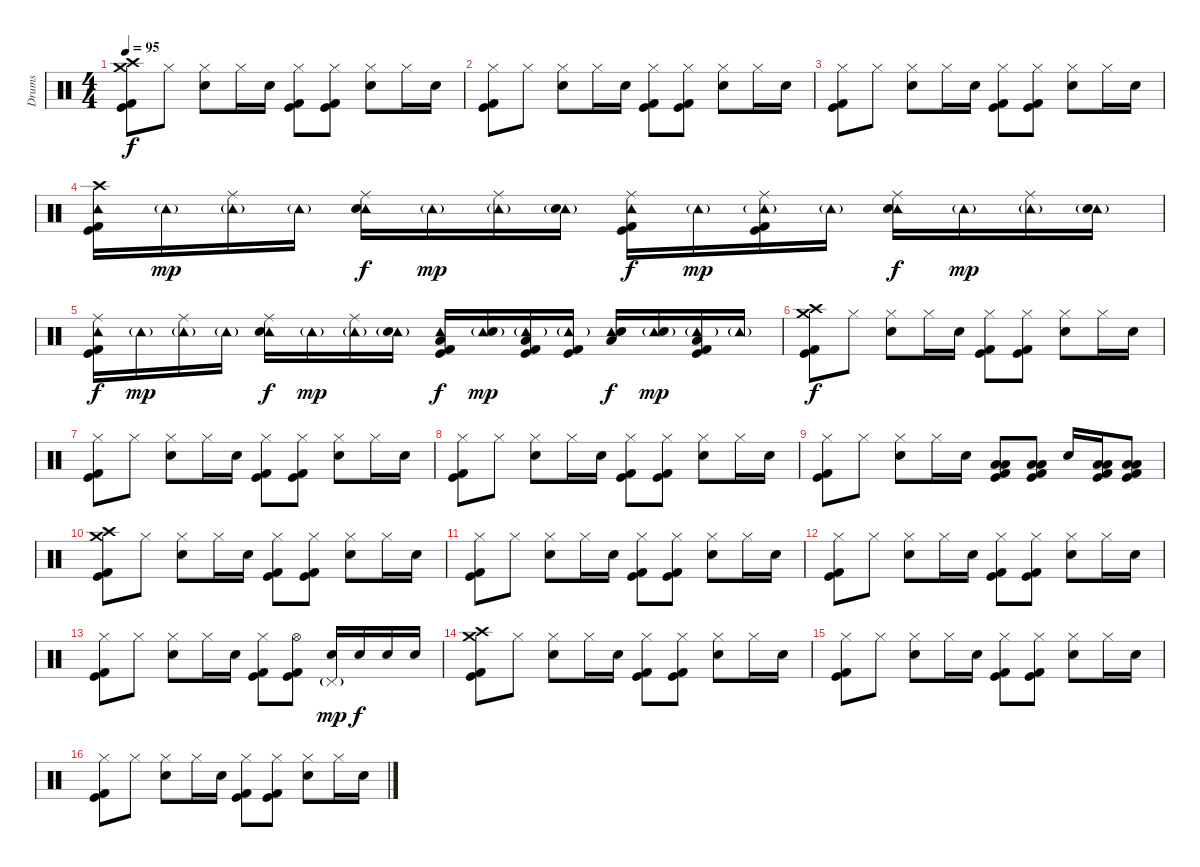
\track ("Drums" "Drums") {instrument percussion}
\staff {score}
\articulation defaults
\ts (4 4)
\tempo 95
\clef neutral
\ks c
("Crash high (hit)" "Crash medium (hit)" "Kick (hit) 2" "Kick (hit)").8{dy f} "Hi-Hat (closed)".8 ("Hi-Hat (closed)" "Snare (hit) 2").8 "Hi-Hat (closed)".16 "Snare (hit) 2".16 ("Hi-Hat (closed)" "Kick (hit) 2" "Kick (hit)").8 ("Hi-Hat (closed)" "Kick (hit) 2" "Kick (hit)").8 ("Hi-Hat (closed)" "Snare (hit) 2").8 "Hi-Hat (closed)".16 "Snare (hit) 2".16 |
("Hi-Hat (closed)" "Kick (hit) 2" "Kick (hit)").8 "Hi-Hat (closed)".8 ("Hi-Hat (closed)" "Snare (hit) 2").8 "Hi-Hat (closed)".16 "Snare (hit) 2".16 ("Hi-Hat (closed)" "Kick (hit) 2" "Kick (hit)").8 ("Hi-Hat (closed)" "Kick (hit) 2" "Kick (hit)").8 ("Hi-Hat (closed)" "Snare (hit) 2").8 "Hi-Hat (closed)".16 "Snare (hit) 2".16 |
("Hi-Hat (closed)" "Kick (hit) 2" "Kick (hit)").8 "Hi-Hat (closed)".8 ("Hi-Hat (closed)" "Snare (hit) 2").8 "Hi-Hat (closed)".16 "Snare (hit) 2".16 ("Hi-Hat (closed)" "Kick (hit) 2" "Kick (hit)").8 ("Hi-Hat (closed)" "Kick (hit) 2" "Kick (hit)").8 ("Hi-Hat (closed)" "Snare (hit) 2").8 "Hi-Hat (closed)".16 "Snare (hit) 2".16 |
("Crash high (hit)" "Tambourine (hit)" "Kick (hit) 2" "Kick (hit)").16 "Tambourine (hit)"{g}.16{dy mp} ("Ride (middle)" "Tambourine (hit)"{g}).16 "Tambourine (hit)"{g}.16 ("Ride (middle)" "Tambourine (hit)" "Snare (hit) 2").16{dy f} "Tambourine (hit)"{g}.16{dy mp} ("Ride (middle)" "Tambourine (hit)"{g}).16 ("Tambourine (hit)"{g} "Snare (hit) 2").16 ("Ride (middle)" "Tambourine (hit)" "Kick (hit) 2" "Kick (hit)").16{dy f} "Tambourine (hit)"{g}.16{dy mp} ("Ride (middle)" "Tambourine (hit)"{g} "Kick (hit) 2" "Kick (hit)").16 "Tambourine (hit)"{g}.16 ("Ride (middle)" "Tambourine (hit)" "Snare (hit) 2").16{dy f} "Tambourine (hit)"{g}.16{dy mp} ("Ride (middle)" "Tambourine (hit)"{g}).16 ("Tambourine (hit)"{g} "Snare (hit) 2").16 |
("Ride (middle)" "Tambourine (hit)" "Kick (hit) 2" "Kick (hit)").16{dy f} "Tambourine (hit)"{g}.16{dy mp} ("Ride (middle)" "Tambourine (hit)"{g}).16 "Tambourine (hit)"{g}.16 ("Ride (middle)" "Tambourine (hit)" "Snare (hit) 2").16{dy f} "Tambourine (hit)"{g}.16{dy mp} ("Ride (middle)" "Tambourine (hit)"{g}).16 ("Tambourine (hit)"{g} "Snare (hit) 2").16 ("Low Floor Tom (hit)" "Tambourine (hit)" "Kick (hit) 2" "Kick (hit)").16{dy f} ("Tambourine (hit)"{g} "Snare (hit) 2").16{dy mp} ("Low Floor Tom (hit)" "Tambourine (hit)"{g} "Kick (hit) 2" "Kick (hit)").16 ("Tambourine (hit)"{g} "Kick (hit) 2" "Kick (hit)").16 ("Low Floor Tom (hit)" "Tambourine (hit)" "Snare (hit) 2").16{dy f} ("Tambourine (hit)"{g} "Snare (hit) 2").16{dy mp} ("Low Floor Tom (hit)" "Tambourine (hit)"{g} "Kick (hit) 2" "Kick (hit)").16 "Tambourine (hit)"{g}.16 |
("Crash high (hit)" "Crash medium (hit)" "Kick (hit) 2" "Kick (hit)").8{dy f} "Hi-Hat (closed)".8 ("Hi-Hat (closed)" "Snare (hit) 2").8 "Hi-Hat (closed)".16 "Snare (hit) 2".16 ("Hi-Hat (closed)" "Kick (hit) 2" "Kick (hit)").8 ("Hi-Hat (closed)" "Kick (hit) 2" "Kick (hit)").8 ("Hi-Hat (closed)" "Snare (hit) 2").8 "Hi-Hat (closed)".16 "Snare (hit) 2".16 |
("Hi-Hat (closed)" "Kick (hit) 2" "Kick (hit)").8 "Hi-Hat (closed)".8 ("Hi-Hat (closed)" "Snare (hit) 2").8 "Hi-Hat (closed)".16 "Snare (hit) 2".16 ("Hi-Hat (closed)" "Kick (hit) 2" "Kick (hit)").8 ("Hi-Hat (closed)" "Kick (hit) 2" "Kick (hit)").8 ("Hi-Hat (closed)" "Snare (hit) 2").8 "Hi-Hat (closed)".16 "Snare (hit) 2".16 |
("Hi-Hat (closed)" "Kick (hit) 2" "Kick (hit)").8 "Hi-Hat (closed)".8 ("Hi-Hat (closed)" "Snare (hit) 2").8 "Hi-Hat (closed)".16 "Snare (hit) 2".16 ("Hi-Hat (closed)" "Kick (hit) 2" "Kick (hit)").8 ("Hi-Hat (closed)" "Kick (hit) 2" "Kick (hit)").8 ("Hi-Hat (closed)" "Snare (hit) 2").8 "Hi-Hat (closed)".16 "Snare (hit) 2".16 |
("Hi-Hat (closed)" "Kick (hit) 2" "Kick (hit)").8 "Hi-Hat (closed)".8 ("Hi-Hat (closed)" "Snare (hit) 2").8 "Hi-Hat (closed)".16 "Snare (hit) 2".16 ("Low Tom (hit)" "Low Floor Tom (hit)" "Kick (hit) 2" "Kick (hit)").8 ("Low Tom (hit)" "Low Floor Tom (hit)" "Kick (hit) 2" "Kick (hit)").8 "Snare (hit) 2".16 ("Low Tom (hit)" "Low Floor Tom (hit)" "Kick (hit) 2" "Kick (hit)").16 ("Low Tom (hit)" "Low Floor Tom (hit)" "Kick (hit) 2" "Kick (hit)").8 |
("Crash high (hit)" "Crash medium (hit)" "Kick (hit) 2" "Kick (hit)").8 "Hi-Hat (closed)".8 ("Hi-Hat (closed)" "Snare (hit) 2").8 "Hi-Hat (closed)".16 "Snare (hit) 2".16 ("Hi-Hat (closed)" "Kick (hit) 2" "Kick (hit)").8 ("Hi-Hat (closed)" "Kick (hit) 2" "Kick (hit)").8 ("Hi-Hat (closed)" "Snare (hit) 2").8 "Hi-Hat (closed)".16 "Snare (hit) 2".16 |
("Hi-Hat (closed)" "Kick (hit) 2" "Kick (hit)").8 "Hi-Hat (closed)".8 ("Hi-Hat (closed)" "Snare (hit) 2").8 "Hi-Hat (closed)".16 "Snare (hit) 2".16 ("Hi-Hat (closed)" "Kick (hit) 2" "Kick (hit)").8 ("Hi-Hat (closed)" "Kick (hit) 2" "Kick (hit)").8 ("Hi-Hat (closed)" "Snare (hit) 2").8 "Hi-Hat (closed)".16 "Snare (hit) 2".16 |
("Hi-Hat (closed)" "Kick (hit) 2" "Kick (hit)").8 "Hi-Hat (closed)".8 ("Hi-Hat (closed)" "Snare (hit) 2").8 "Hi-Hat (closed)".16 "Snare (hit) 2".16 ("Hi-Hat (closed)" "Kick (hit) 2" "Kick (hit)").8 ("Hi-Hat (closed)" "Kick (hit) 2" "Kick (hit)").8 ("Hi-Hat (closed)" "Snare (hit) 2").8 "Hi-Hat (closed)".16 "Snare (hit) 2".16 |
("Hi-Hat (closed)" "Kick (hit) 2" "Kick (hit)").8 "Hi-Hat (closed)".8 ("Hi-Hat (closed)" "Snare (hit) 2").8 "Hi-Hat (closed)".16 "Snare (hit) 2".16 ("Hi-Hat (closed)" "Kick (hit) 2" "Kick (hit)").8 ("Hi-Hat (open)" "Kick (hit) 2" "Kick (hit)").8 ("Pedal Hi-Hat (hit)"{g} "Snare (hit) 2").16{dy mp} "Snare (hit) 2".16{dy f} "Snare (hit) 2".16 "Snare (hit) 2".16 |
("Crash high (hit)" "Crash medium (hit)" "Kick (hit) 2" "Kick (hit)").8 "Hi-Hat (closed)".8 ("Hi-Hat (closed)" "Snare (hit) 2").8 "Hi-Hat (closed)".16 "Snare (hit) 2".16 ("Hi-Hat (closed)" "Kick (hit) 2" "Kick (hit)").8 ("Hi-Hat (closed)" "Kick (hit) 2" "Kick (hit)").8 ("Hi-Hat (closed)" "Snare (hit) 2").8 "Hi-Hat (closed)".16 "Snare (hit) 2".16 |
("Hi-Hat (closed)" "Kick (hit) 2" "Kick (hit)").8 "Hi-Hat (closed)".8 ("Hi-Hat (closed)" "Snare (hit) 2").8 "Hi-Hat (closed)".16 "Snare (hit) 2".16 ("Hi-Hat (closed)" "Kick (hit) 2" "Kick (hit)").8 ("Hi-Hat (closed)" "Kick (hit) 2" "Kick (hit)").8 ("Hi-Hat (closed)" "Snare (hit) 2").8 "Hi-Hat (closed)".16 "Snare (hit) 2".16 |
("Hi-Hat (closed)" "Kick (hit) 2" "Kick (hit)").8 "Hi-Hat (closed)".8 ("Hi-Hat (closed)" "Snare (hit) 2").8 "Hi-Hat (closed)".16 "Snare (hit) 2".16 ("Hi-Hat (closed)" "Kick (hit) 2" "Kick (hit)").8 ("Hi-Hat (closed)" "Kick (hit) 2" "Kick (hit)").8 ("Hi-Hat (closed)" "Snare (hit) 2").8 "Hi-Hat (closed)".16 "Snare (hit) 2".16
